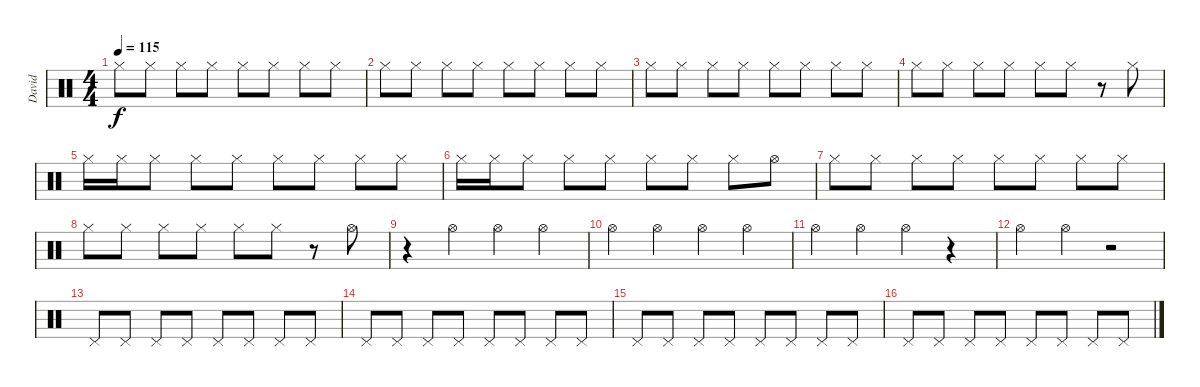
\track ("David" "David") {instrument percussion}
\staff {score}
\articulation defaults
\ts (4 4)
\tempo 115
\clef neutral
\ks c "Hi-Hat (closed)".8{dy f} "Hi-Hat (closed)".8 "Hi-Hat (closed)".8 "Hi-Hat (closed)".8 "Hi-Hat (closed)".8 "Hi-Hat (closed)".8 "Hi-Hat (closed)".8 "Hi-Hat (closed)".8
|
"Hi-Hat (closed)".8 "Hi-Hat (closed)".8 "Hi-Hat (closed)".8 "Hi-Hat (closed)".8 "Hi-Hat (closed)".8 "Hi-Hat (closed)".8 "Hi-Hat (closed)".8 "Hi-Hat (closed)".8 |
"Hi-Hat (closed)".8 "Hi-Hat (closed)".8 "Hi-Hat (closed)".8 "Hi-Hat (closed)".8 "Hi-Hat (closed)".8 "Hi-Hat (closed)".8 "Hi-Hat (closed)".8 "Hi-Hat (closed)".8 |
"Hi-Hat (closed)".8 "Hi-Hat (closed)".8 "Hi-Hat (closed)".8 "Hi-Hat (closed)".8 "Hi-Hat (closed)".8 "Hi-Hat (closed)".8 r.8 "Hi-Hat (closed)".8 |
"Hi-Hat (closed)".16 "Hi-Hat (closed)".16 "Hi-Hat (closed)".8 "Hi-Hat (closed)".8 "Hi-Hat (closed)".8 "Hi-Hat (closed)".8 "Hi-Hat (closed)".8 "Hi-Hat (closed)".8 "Hi-Hat (closed)".8 |
"Hi-Hat (closed)".16 "Hi-Hat (closed)".16 "Hi-Hat (closed)".8 "Hi-Hat (closed)".8 "Hi-Hat (closed)".8 "Hi-Hat (closed)".8 "Hi-Hat (closed)".8 "Hi-Hat (closed)".8 "Hi-Hat (open)".8 |
"Hi-Hat (closed)".8 "Hi-Hat (closed)".8 "Hi-Hat (closed)".8 "Hi-Hat (closed)".8 "Hi-Hat (closed)".8 "Hi-Hat (closed)".8 "Hi-Hat (closed)".8 "Hi-Hat (closed)".8 |
"Hi-Hat (closed)".8 "Hi-Hat (closed)".8 "Hi-Hat (closed)".8 "Hi-Hat (closed)".8 "Hi-Hat (closed)".8 "Hi-Hat (closed)".8 r.8 "Hi-Hat (open)".8 |
r.4 "Hi-Hat (open)".4 "Hi-Hat (open)".4 "Hi-Hat (open)".4 |
"Hi-Hat (open)".4 "Hi-Hat (open)".4 "Hi-Hat (open)".4 "Hi-Hat (open)".4 |
"Hi-Hat (open)".4 "Hi-Hat (open)".4 "Hi-Hat (open)".4 r.4 |
"Hi-Hat (open)".4 "Hi-Hat (open)".4 r.2 |
"Pedal Hi-Hat (hit)".8 "Pedal Hi-Hat (hit)".8 "Pedal Hi-Hat (hit)".8 "Pedal Hi-Hat (hit)".8 "Pedal Hi-Hat (hit)".8 "Pedal Hi-Hat (hit)".8 "Pedal Hi-Hat (hit)".8 "Pedal Hi-Hat (hit)".8 |
"Pedal Hi-Hat (hit)".8 "Pedal Hi-Hat (hit)".8 "Pedal Hi-Hat (hit)".8 "Pedal Hi-Hat (hit)".8 "Pedal Hi-Hat (hit)".8 "Pedal Hi-Hat (hit)".8 "Pedal Hi-Hat (hit)".8 "Pedal Hi-Hat (hit)".8 |
"Pedal Hi-Hat (hit)".8 "Pedal Hi-Hat (hit)".8 "Pedal Hi-Hat (hit)".8 "Pedal Hi-Hat (hit)".8 "Pedal Hi-Hat (hit)".8 "Pedal Hi-Hat (hit)".8 "Pedal Hi-Hat (hit)".8 "Pedal Hi-Hat (hit)".8 |
"Pedal Hi-Hat (hit)".8 "Pedal Hi-Hat (hit)".8 "Pedal Hi-Hat (hit)".8 "Pedal Hi-Hat (hit)".8 "Pedal Hi-Hat (hit)".8 "Pedal Hi-Hat (hit)".8 "Pedal Hi-Hat (hit)".8 "Pedal Hi-Hat (hit)".8
